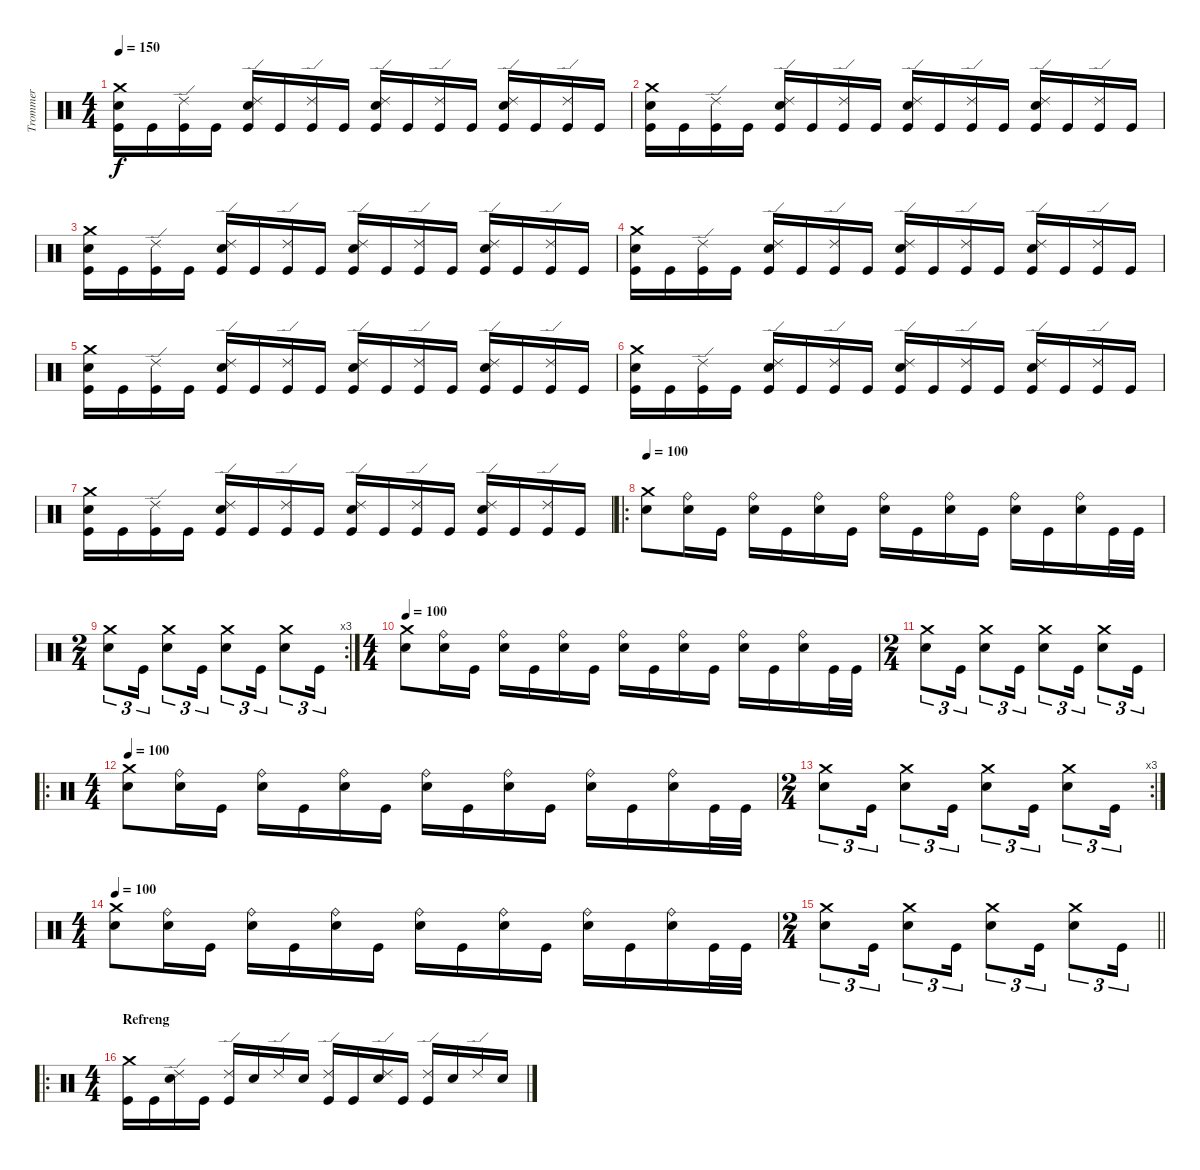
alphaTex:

\track ("Trommer" "Trommer") {instrument percussion}
\staff {score}
\articulation defaults
\ts (4 4)
\tempo 150
\clef neutral
\ks c
("Crash medium (hit)" "Snare (hit) 2" "Kick (hit)").16{dy f} "Kick (hit)".16 ("Ride (edge) 2" "Kick (hit)").16 "Kick (hit)".16 ("Ride (edge) 2" "Snare (hit) 2" "Kick (hit)").16 "Kick (hit)".16 ("Ride (edge) 2" "Kick (hit)").16 "Kick (hit)".16 ("Ride (edge) 2" "Snare (hit) 2" "Kick (hit)").16 "Kick (hit)".16 ("Ride (edge) 2" "Kick (hit)").16 "Kick (hit)".16 ("Ride (edge) 2" "Snare (hit) 2" "Kick (hit)").16 "Kick (hit)".16 ("Ride (edge) 2" "Kick (hit)").16 "Kick (hit)".16 |
("Crash medium (hit)" "Snare (hit) 2" "Kick (hit)").16 "Kick (hit)".16 ("Ride (edge) 2" "Kick (hit)").16 "Kick (hit)".16 ("Ride (edge) 2" "Snare (hit) 2" "Kick (hit)").16 "Kick (hit)".16 ("Ride (edge) 2" "Kick (hit)").16 "Kick (hit)".16 ("Ride (edge) 2" "Snare (hit) 2" "Kick (hit)").16 "Kick (hit)".16 ("Ride (edge) 2" "Kick (hit)").16 "Kick (hit)".16 ("Ride (edge) 2" "Snare (hit) 2" "Kick (hit)").16 "Kick (hit)".16 ("Ride (edge) 2" "Kick (hit)").16 "Kick (hit)".16 |
("Crash medium (hit)" "Snare (hit) 2" "Kick (hit)").16 "Kick (hit)".16 ("Ride (edge) 2" "Kick (hit)").16 "Kick (hit)".16 ("Ride (edge) 2" "Snare (hit) 2" "Kick (hit)").16 "Kick (hit)".16 ("Ride (edge) 2" "Kick (hit)").16 "Kick (hit)".16 ("Ride (edge) 2" "Snare (hit) 2" "Kick (hit)").16 "Kick (hit)".16 ("Ride (edge) 2" "Kick (hit)").16 "Kick (hit)".16 ("Ride (edge) 2" "Snare (hit) 2" "Kick (hit)").16 "Kick (hit)".16 ("Ride (edge) 2" "Kick (hit)").16 "Kick (hit)".16 |
("Crash medium (hit)" "Snare (hit) 2" "Kick (hit)").16 "Kick (hit)".16 ("Ride (edge) 2" "Kick (hit)").16 "Kick (hit)".16 ("Ride (edge) 2" "Snare (hit) 2" "Kick (hit)").16 "Kick (hit)".16 ("Ride (edge) 2" "Kick (hit)").16 "Kick (hit)".16 ("Ride (edge) 2" "Snare (hit) 2" "Kick (hit)").16 "Kick (hit)".16 ("Ride (edge) 2" "Kick (hit)").16 "Kick (hit)".16 ("Ride (edge) 2" "Snare (hit) 2" "Kick (hit)").16 "Kick (hit)".16 ("Ride (edge) 2" "Kick (hit)").16 "Kick (hit)".16 |
("Crash medium (hit)" "Snare (hit) 2" "Kick (hit)").16 "Kick (hit)".16 ("Ride (edge) 2" "Kick (hit)").16 "Kick (hit)".16 ("Ride (edge) 2" "Snare (hit) 2" "Kick (hit)").16 "Kick (hit)".16 ("Ride (edge) 2" "Kick (hit)").16 "Kick (hit)".16 ("Ride (edge) 2" "Snare (hit) 2" "Kick (hit)").16 "Kick (hit)".16 ("Ride (edge) 2" "Kick (hit)").16 "Kick (hit)".16 ("Ride (edge) 2" "Snare (hit) 2" "Kick (hit)").16 "Kick (hit)".16 ("Ride (edge) 2" "Kick (hit)").16 "Kick (hit)".16 |
("Crash medium (hit)" "Snare (hit) 2" "Kick (hit)").16 "Kick (hit)".16 ("Ride (edge) 2" "Kick (hit)").16 "Kick (hit)".16 ("Ride (edge) 2" "Snare (hit) 2" "Kick (hit)").16 "Kick (hit)".16 ("Ride (edge) 2" "Kick (hit)").16 "Kick (hit)".16 ("Ride (edge) 2" "Snare (hit) 2" "Kick (hit)").16 "Kick (hit)".16 ("Ride (edge) 2" "Kick (hit)").16 "Kick (hit)".16 ("Ride (edge) 2" "Snare (hit) 2" "Kick (hit)").16 "Kick (hit)".16 ("Ride (edge) 2" "Kick (hit)").16 "Kick (hit)".16 |
("Crash medium (hit)" "Snare (hit) 2" "Kick (hit)").16 "Kick (hit)".16 ("Ride (edge) 2" "Kick (hit)").16 "Kick (hit)".16 ("Ride (edge) 2" "Snare (hit) 2" "Kick (hit)").16 "Kick (hit)".16 ("Ride (edge) 2" "Kick (hit)").16 "Kick (hit)".16 ("Ride (edge) 2" "Snare (hit) 2" "Kick (hit)").16 "Kick (hit)".16 ("Ride (edge) 2" "Kick (hit)").16 "Kick (hit)".16 ("Ride (edge) 2" "Snare (hit) 2" "Kick (hit)").16 "Kick (hit)".16 ("Ride (edge) 2" "Kick (hit)").16 "Kick (hit)".16 |
\ro
\tempo 100
("Crash medium (hit)" "Snare (hit) 2").8 ("Ride (bell)" "Snare (hit) 2").16 "Kick (hit)".16 ("Ride (bell)" "Snare (hit) 2").16 "Kick (hit)".16 ("Ride (bell)" "Snare (hit) 2").16 "Kick (hit)".16 ("Ride (bell)" "Snare (hit) 2").16 "Kick (hit)".16 ("Ride (bell)" "Snare (hit) 2").16 "Kick (hit)".16 ("Ride (bell)" "Snare (hit) 2").16 "Kick (hit)".16 ("Ride (bell)" "Snare (hit) 2").16 "Kick (hit)".32 "Kick (hit)".32 |
\rc 3
\ts (2 4)
("Crash medium (hit)" "Snare (hit) 2").8{tu (3 2)} "Kick (hit)".16{tu (3 2)} ("Crash medium (hit)" "Snare (hit) 2").8{tu (3 2)} "Kick (hit)".16{tu (3 2)} ("Crash medium (hit)" "Snare (hit) 2").8{tu (3 2)} "Kick (hit)".16{tu (3 2)} ("Crash medium (hit)" "Snare (hit) 2").8{tu (3 2)} "Kick (hit)".16{tu (3 2)} |
\ts (4 4)
\tempo 100
("Crash medium (hit)" "Snare (hit) 2").8 ("Ride (bell)" "Snare (hit) 2").16 "Kick (hit)".16 ("Ride (bell)" "Snare (hit) 2").16 "Kick (hit)".16 ("Ride (bell)" "Snare (hit) 2").16 "Kick (hit)".16 ("Ride (bell)" "Snare (hit) 2").16 "Kick (hit)".16 ("Ride (bell)" "Snare (hit) 2").16 "Kick (hit)".16 ("Ride (bell)" "Snare (hit) 2").16 "Kick (hit)".16 ("Ride (bell)" "Snare (hit) 2").16 "Kick (hit)".32 "Kick (hit)".32 |
\ts (2 4)
("Crash medium (hit)" "Snare (hit) 2").8{tu (3 2)} "Kick (hit)".16{tu (3 2)} ("Crash medium (hit)" "Snare (hit) 2").8{tu (3 2)} "Kick (hit)".16{tu (3 2)} ("Crash medium (hit)" "Snare (hit) 2").8{tu (3 2)} "Kick (hit)".16{tu (3 2)} ("Crash medium (hit)" "Snare (hit) 2").8{tu (3 2)} "Kick (hit)".16{tu (3 2)} |
\ro
\ts (4 4)
\tempo 100
("Crash medium (hit)" "Snare (hit) 2").8 ("Ride (bell)" "Snare (hit) 2").16 "Kick (hit)".16 ("Ride (bell)" "Snare (hit) 2").16 "Kick (hit)".16 ("Ride (bell)" "Snare (hit) 2").16 "Kick (hit)".16 ("Ride (bell)" "Snare (hit) 2").16 "Kick (hit)".16 ("Ride (bell)" "Snare (hit) 2").16 "Kick (hit)".16 ("Ride (bell)" "Snare (hit) 2").16 "Kick (hit)".16 ("Ride (bell)" "Snare (hit) 2").16 "Kick (hit)".32 "Kick (hit)".32 |
\rc 3
\ts (2 4)
("Crash medium (hit)" "Snare (hit) 2").8{tu (3 2)} "Kick (hit)".16{tu (3 2)} ("Crash medium (hit)" "Snare (hit) 2").8{tu (3 2)} "Kick (hit)".16{tu (3 2)} ("Crash medium (hit)" "Snare (hit) 2").8{tu (3 2)} "Kick (hit)".16{tu (3 2)} ("Crash medium (hit)" "Snare (hit) 2").8{tu (3 2)} "Kick (hit)".16{tu (3 2)} |
\ts (4 4)
\tempo 100
("Crash medium (hit)" "Snare (hit) 2").8 ("Ride (bell)" "Snare (hit) 2").16 "Kick (hit)".16 ("Ride (bell)" "Snare (hit) 2").16 "Kick (hit)".16 ("Ride (bell)" "Snare (hit) 2").16 "Kick (hit)".16 ("Ride (bell)" "Snare (hit) 2").16 "Kick (hit)".16 ("Ride (bell)" "Snare (hit) 2").16 "Kick (hit)".16 ("Ride (bell)" "Snare (hit) 2").16 "Kick (hit)".16 ("Ride (bell)" "Snare (hit) 2").16 "Kick (hit)".32 "Kick (hit)".32 |
\ts (2 4)
\barLineRight lightlight
("Crash medium (hit)" "Snare (hit) 2").8{tu (3 2)} "Kick (hit)".16{tu (3 2)} ("Crash medium (hit)" "Snare (hit) 2").8{tu (3 2)} "Kick (hit)".16{tu (3 2)} ("Crash medium (hit)" "Snare (hit) 2").8{tu (3 2)} "Kick (hit)".16{tu (3 2)} ("Crash medium (hit)" "Snare (hit) 2").8{tu (3 2)} "Kick (hit)".16{tu (3 2)} |
\ro
\ts (4 4)
\section ("" "Refreng")
("Crash medium (hit)" "Kick (hit)").16 "Kick (hit)".16 ("Ride (edge) 2" "Snare (hit) 2").16 "Kick (hit)".16 ("Ride (edge) 2" "Kick (hit)").16 "Snare (hit) 2".16 "Ride (edge) 2".16 "Snare (hit) 2".16 ("Ride (edge) 2" "Kick (hit)").16 "Kick (hit)".16 ("Ride (edge) 2" "Snare (hit) 2").16 "Kick (hit)".16 ("Ride (edge) 2" "Kick (hit)").16 "Snare (hit) 2".16 "Ride (edge) 2".16 "Snare (hit) 2".16
